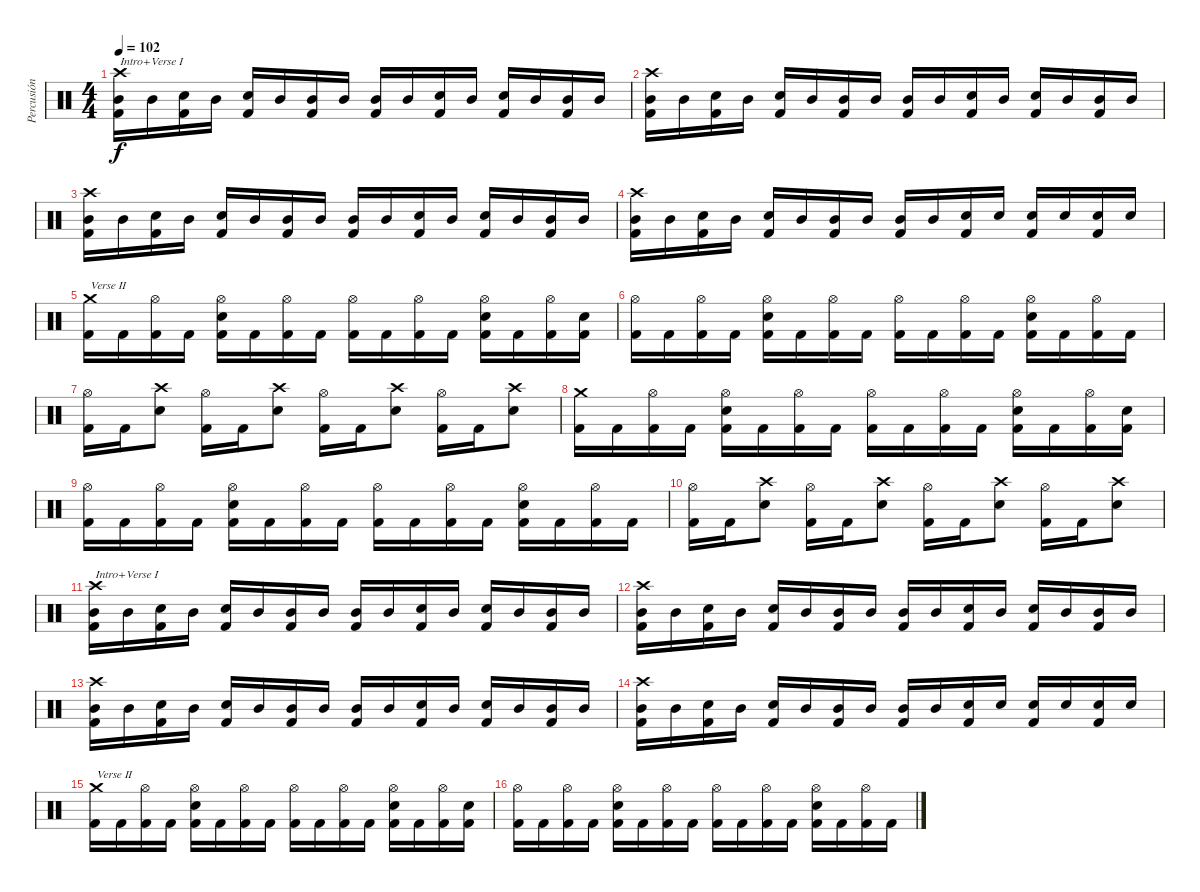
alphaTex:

\track ("Percusión" "Percusión") {instrument percussion}
\staff {score}
\articulation defaults
\ts (4 4)
\tempo 102
\clef neutral
\ks c
("Crash high (hit)" "Mid Tom (hit)" "Kick (hit) 2").16{txt "Intro+Verse I" dy f} "Mid Tom (hit)".16 ("Electric Snare (hit)" "Kick (hit) 2").16 "Mid Tom (hit)".16 ("Electric Snare (hit)" "Kick (hit) 2").16 "Mid Tom (hit)".16 ("Mid Tom (hit)" "Kick (hit) 2").16 "Mid Tom (hit)".16 ("Mid Tom (hit)" "Kick (hit) 2").16 "Mid Tom (hit)".16 ("Electric Snare (hit)" "Kick (hit) 2").16 "Mid Tom (hit)".16 ("Electric Snare (hit)" "Kick (hit) 2").16 "Mid Tom (hit)".16 ("Mid Tom (hit)" "Kick (hit) 2").16 "Mid Tom (hit)".16 |
("Crash high (hit)" "Mid Tom (hit)" "Kick (hit) 2").16 "Mid Tom (hit)".16 ("Electric Snare (hit)" "Kick (hit) 2").16 "Mid Tom (hit)".16 ("Electric Snare (hit)" "Kick (hit) 2").16 "Mid Tom (hit)".16 ("Mid Tom (hit)" "Kick (hit) 2").16 "Mid Tom (hit)".16 ("Mid Tom (hit)" "Kick (hit) 2").16 "Mid Tom (hit)".16 ("Electric Snare (hit)" "Kick (hit) 2").16 "Mid Tom (hit)".16 ("Electric Snare (hit)" "Kick (hit) 2").16 "Mid Tom (hit)".16 ("Mid Tom (hit)" "Kick (hit) 2").16 "Mid Tom (hit)".16 |
("Crash high (hit)" "Mid Tom (hit)" "Kick (hit) 2").16 "Mid Tom (hit)".16 ("Electric Snare (hit)" "Kick (hit) 2").16 "Mid Tom (hit)".16 ("Electric Snare (hit)" "Kick (hit) 2").16 "Mid Tom (hit)".16 ("Mid Tom (hit)" "Kick (hit) 2").16 "Mid Tom (hit)".16 ("Mid Tom (hit)" "Kick (hit) 2").16 "Mid Tom (hit)".16 ("Electric Snare (hit)" "Kick (hit) 2").16 "Mid Tom (hit)".16 ("Electric Snare (hit)" "Kick (hit) 2").16 "Mid Tom (hit)".16 ("Mid Tom (hit)" "Kick (hit) 2").16 "Mid Tom (hit)".16 |
("Crash high (hit)" "Mid Tom (hit)" "Kick (hit) 2").16 "Mid Tom (hit)".16 ("Electric Snare (hit)" "Kick (hit) 2").16 "Mid Tom (hit)".16 ("Electric Snare (hit)" "Kick (hit) 2").16 "Mid Tom (hit)".16 ("Mid Tom (hit)" "Kick (hit) 2").16 "Mid Tom (hit)".16 ("Mid Tom (hit)" "Kick (hit) 2").16 "Mid Tom (hit)".16 ("Electric Snare (hit)" "Kick (hit) 2").16 "Electric Snare (hit)".16 ("Electric Snare (hit)" "Kick (hit) 2").16 "Electric Snare (hit)".16 ("Electric Snare (hit)" "Kick (hit) 2").16 "Electric Snare (hit)".16 |
("Crash medium (hit)" "Kick (hit) 2").16{txt "Verse II"} "Kick (hit) 2".16 ("Hi-Hat (open)" "Kick (hit) 2").16 "Kick (hit) 2".16 ("Hi-Hat (open)" "Electric Snare (hit)" "Kick (hit) 2").16 "Kick (hit) 2".16 ("Hi-Hat (open)" "Kick (hit) 2").16 "Kick (hit) 2".16 ("Hi-Hat (open)" "Kick (hit) 2").16 "Kick (hit) 2".16 ("Hi-Hat (open)" "Kick (hit) 2").16 "Kick (hit) 2".16 ("Hi-Hat (open)" "Electric Snare (hit)" "Kick (hit) 2").16 "Kick (hit) 2".16 ("Hi-Hat (open)" "Kick (hit) 2").16 ("Electric Snare (hit)" "Kick (hit) 2").16 |
("Hi-Hat (open)" "Kick (hit) 2").16 "Kick (hit) 2".16 ("Hi-Hat (open)" "Kick (hit) 2").16 "Kick (hit) 2".16 ("Hi-Hat (open)" "Electric Snare (hit)" "Kick (hit) 2").16 "Kick (hit) 2".16 ("Hi-Hat (open)" "Kick (hit) 2").16 "Kick (hit) 2".16 ("Hi-Hat (open)" "Kick (hit) 2").16 "Kick (hit) 2".16 ("Hi-Hat (open)" "Kick (hit) 2").16 "Kick (hit) 2".16 ("Hi-Hat (open)" "Electric Snare (hit)" "Kick (hit) 2").16 "Kick (hit) 2".16 ("Hi-Hat (open)" "Kick (hit) 2").16 "Kick (hit) 2".16 |
("Hi-Hat (open)" "Kick (hit) 2").16 "Kick (hit) 2".16 ("Crash high (hit)" "Electric Snare (hit)").8 ("Hi-Hat (open)" "Kick (hit) 2").16 "Kick (hit) 2".16 ("Crash high (hit)" "Electric Snare (hit)").8 ("Hi-Hat (open)" "Kick (hit) 2").16 "Kick (hit) 2".16 ("Crash high (hit)" "Electric Snare (hit)").8 ("Hi-Hat (open)" "Kick (hit) 2").16 "Kick (hit) 2".16 ("Crash high (hit)" "Electric Snare (hit)").8 |
("Crash medium (hit)" "Kick (hit) 2").16 "Kick (hit) 2".16 ("Hi-Hat (open)" "Kick (hit) 2").16 "Kick (hit) 2".16 ("Hi-Hat (open)" "Electric Snare (hit)" "Kick (hit) 2").16 "Kick (hit) 2".16 ("Hi-Hat (open)" "Kick (hit) 2").16 "Kick (hit) 2".16 ("Hi-Hat (open)" "Kick (hit) 2").16 "Kick (hit) 2".16 ("Hi-Hat (open)" "Kick (hit) 2").16 "Kick (hit) 2".16 ("Hi-Hat (open)" "Electric Snare (hit)" "Kick (hit) 2").16 "Kick (hit) 2".16 ("Hi-Hat (open)" "Kick (hit) 2").16 ("Electric Snare (hit)" "Kick (hit) 2").16 |
("Hi-Hat (open)" "Kick (hit) 2").16 "Kick (hit) 2".16 ("Hi-Hat (open)" "Kick (hit) 2").16 "Kick (hit) 2".16 ("Hi-Hat (open)" "Electric Snare (hit)" "Kick (hit) 2").16 "Kick (hit) 2".16 ("Hi-Hat (open)" "Kick (hit) 2").16 "Kick (hit) 2".16 ("Hi-Hat (open)" "Kick (hit) 2").16 "Kick (hit) 2".16 ("Hi-Hat (open)" "Kick (hit) 2").16 "Kick (hit) 2".16 ("Hi-Hat (open)" "Electric Snare (hit)" "Kick (hit) 2").16 "Kick (hit) 2".16 ("Hi-Hat (open)" "Kick (hit) 2").16 "Kick (hit) 2".16 |
("Hi-Hat (open)" "Kick (hit) 2").16 "Kick (hit) 2".16 ("Crash high (hit)" "Electric Snare (hit)").8 ("Hi-Hat (open)" "Kick (hit) 2").16 "Kick (hit) 2".16 ("Crash high (hit)" "Electric Snare (hit)").8 ("Hi-Hat (open)" "Kick (hit) 2").16 "Kick (hit) 2".16 ("Crash high (hit)" "Electric Snare (hit)").8 ("Hi-Hat (open)" "Kick (hit) 2").16 "Kick (hit) 2".16 ("Crash high (hit)" "Electric Snare (hit)").8 |
("Crash high (hit)" "Mid Tom (hit)" "Kick (hit) 2").16{txt "Intro+Verse I"} "Mid Tom (hit)".16 ("Electric Snare (hit)" "Kick (hit) 2").16 "Mid Tom (hit)".16 ("Electric Snare (hit)" "Kick (hit) 2").16 "Mid Tom (hit)".16 ("Mid Tom (hit)" "Kick (hit) 2").16 "Mid Tom (hit)".16 ("Mid Tom (hit)" "Kick (hit) 2").16 "Mid Tom (hit)".16 ("Electric Snare (hit)" "Kick (hit) 2").16 "Mid Tom (hit)".16 ("Electric Snare (hit)" "Kick (hit) 2").16 "Mid Tom (hit)".16 ("Mid Tom (hit)" "Kick (hit) 2").16 "Mid Tom (hit)".16 |
("Crash high (hit)" "Mid Tom (hit)" "Kick (hit) 2").16 "Mid Tom (hit)".16 ("Electric Snare (hit)" "Kick (hit) 2").16 "Mid Tom (hit)".16 ("Electric Snare (hit)" "Kick (hit) 2").16 "Mid Tom (hit)".16 ("Mid Tom (hit)" "Kick (hit) 2").16 "Mid Tom (hit)".16 ("Mid Tom (hit)" "Kick (hit) 2").16 "Mid Tom (hit)".16 ("Electric Snare (hit)" "Kick (hit) 2").16 "Mid Tom (hit)".16 ("Electric Snare (hit)" "Kick (hit) 2").16 "Mid Tom (hit)".16 ("Mid Tom (hit)" "Kick (hit) 2").16 "Mid Tom (hit)".16 |
("Crash high (hit)" "Mid Tom (hit)" "Kick (hit) 2").16 "Mid Tom (hit)".16 ("Electric Snare (hit)" "Kick (hit) 2").16 "Mid Tom (hit)".16 ("Electric Snare (hit)" "Kick (hit) 2").16 "Mid Tom (hit)".16 ("Mid Tom (hit)" "Kick (hit) 2").16 "Mid Tom (hit)".16 ("Mid Tom (hit)" "Kick (hit) 2").16 "Mid Tom (hit)".16 ("Electric Snare (hit)" "Kick (hit) 2").16 "Mid Tom (hit)".16 ("Electric Snare (hit)" "Kick (hit) 2").16 "Mid Tom (hit)".16 ("Mid Tom (hit)" "Kick (hit) 2").16 "Mid Tom (hit)".16 |
("Crash high (hit)" "Mid Tom (hit)" "Kick (hit) 2").16 "Mid Tom (hit)".16 ("Electric Snare (hit)" "Kick (hit) 2").16 "Mid Tom (hit)".16 ("Electric Snare (hit)" "Kick (hit) 2").16 "Mid Tom (hit)".16 ("Mid Tom (hit)" "Kick (hit) 2").16 "Mid Tom (hit)".16 ("Mid Tom (hit)" "Kick (hit) 2").16 "Mid Tom (hit)".16 ("Electric Snare (hit)" "Kick (hit) 2").16 "Electric Snare (hit)".16 ("Electric Snare (hit)" "Kick (hit) 2").16 "Electric Snare (hit)".16 ("Electric Snare (hit)" "Kick (hit) 2").16 "Electric Snare (hit)".16 |
("Crash medium (hit)" "Kick (hit) 2").16{txt "Verse II"} "Kick (hit) 2".16 ("Hi-Hat (open)" "Kick (hit) 2").16 "Kick (hit) 2".16 ("Hi-Hat (open)" "Electric Snare (hit)" "Kick (hit) 2").16 "Kick (hit) 2".16 ("Hi-Hat (open)" "Kick (hit) 2").16 "Kick (hit) 2".16 ("Hi-Hat (open)" "Kick (hit) 2").16 "Kick (hit) 2".16 ("Hi-Hat (open)" "Kick (hit) 2").16 "Kick (hit) 2".16 ("Hi-Hat (open)" "Electric Snare (hit)" "Kick (hit) 2").16 "Kick (hit) 2".16 ("Hi-Hat (open)" "Kick (hit) 2").16 ("Electric Snare (hit)" "Kick (hit) 2").16 |
("Hi-Hat (open)" "Kick (hit) 2").16 "Kick (hit) 2".16 ("Hi-Hat (open)" "Kick (hit) 2").16 "Kick (hit) 2".16 ("Hi-Hat (open)" "Electric Snare (hit)" "Kick (hit) 2").16 "Kick (hit) 2".16 ("Hi-Hat (open)" "Kick (hit) 2").16 "Kick (hit) 2".16 ("Hi-Hat (open)" "Kick (hit) 2").16 "Kick (hit) 2".16 ("Hi-Hat (open)" "Kick (hit) 2").16 "Kick (hit) 2".16 ("Hi-Hat (open)" "Electric Snare (hit)" "Kick (hit) 2").16 "Kick (hit) 2".16 ("Hi-Hat (open)" "Kick (hit) 2").16 "Kick (hit) 2".16
